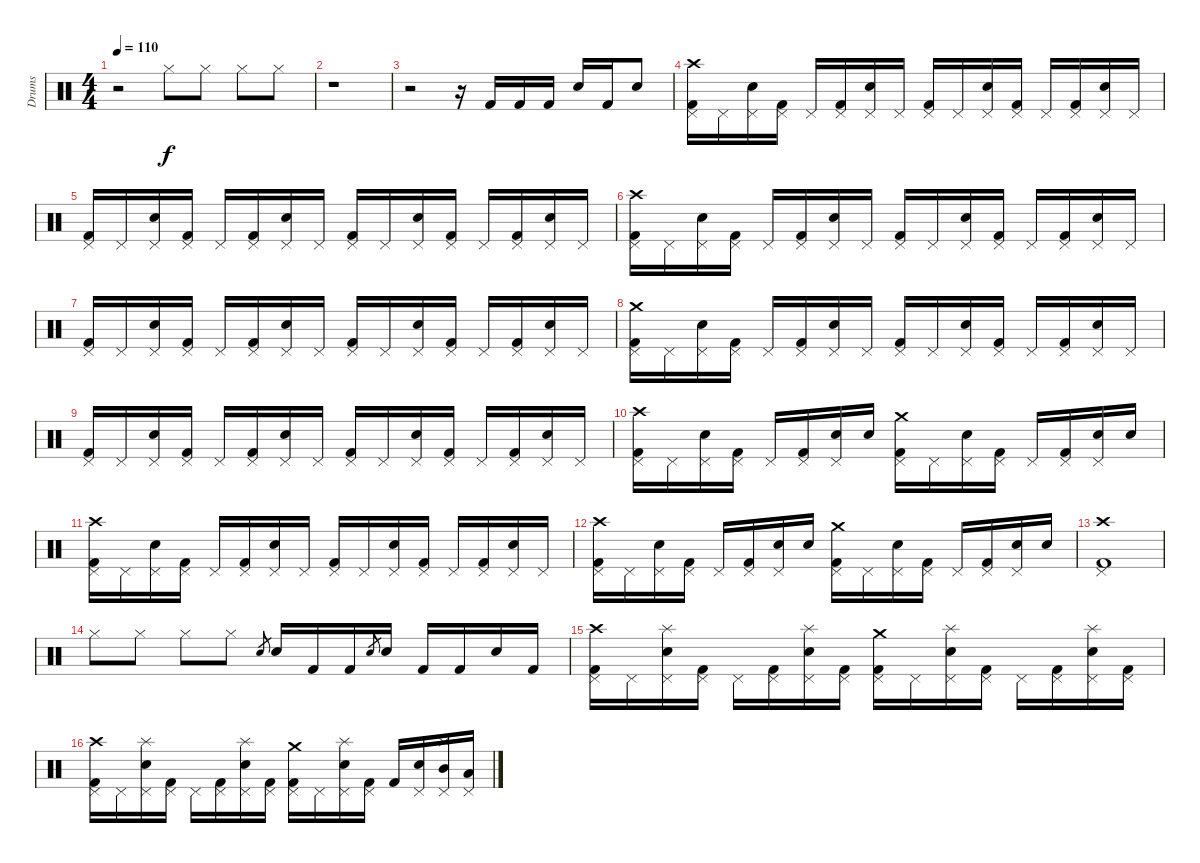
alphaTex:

\track ("Drums" "Drums") {instrument percussion}
\staff {score}
\articulation defaults
\ts (4 4)
\tempo 110
\clef neutral
\ks c
r.2{dy f} "Hi-Hat (closed)".8 "Hi-Hat (closed)".8 "Hi-Hat (closed)".8 "Hi-Hat (closed)".8 |
r.1 |
r.2 r.16 "Kick (hit) 2".16 "Kick (hit) 2".16 "Kick (hit) 2".16 "Snare (hit) 2".16 "Kick (hit) 2".16 "Snare (hit) 2".8 |
("Kick (hit) 2" "Pedal Hi-Hat (hit)" "Crash high (hit)").16 "Pedal Hi-Hat (hit)".16 ("Snare (hit) 2" "Pedal Hi-Hat (hit)").16 ("Kick (hit) 2" "Pedal Hi-Hat (hit)").16 "Pedal Hi-Hat (hit)".16 ("Kick (hit) 2" "Pedal Hi-Hat (hit)").16 ("Snare (hit) 2" "Pedal Hi-Hat (hit)").16 "Pedal Hi-Hat (hit)".16 ("Kick (hit) 2" "Pedal Hi-Hat (hit)").16 "Pedal Hi-Hat (hit)".16 ("Snare (hit) 2" "Pedal Hi-Hat (hit)").16 ("Kick (hit) 2" "Pedal Hi-Hat (hit)").16 "Pedal Hi-Hat (hit)".16 ("Kick (hit) 2" "Pedal Hi-Hat (hit)").16 ("Snare (hit) 2" "Pedal Hi-Hat (hit)").16 "Pedal Hi-Hat (hit)".16 |
("Kick (hit) 2" "Pedal Hi-Hat (hit)").16 "Pedal Hi-Hat (hit)".16 ("Snare (hit) 2" "Pedal Hi-Hat (hit)").16 ("Kick (hit) 2" "Pedal Hi-Hat (hit)").16 "Pedal Hi-Hat (hit)".16 ("Kick (hit) 2" "Pedal Hi-Hat (hit)").16 ("Snare (hit) 2" "Pedal Hi-Hat (hit)").16 "Pedal Hi-Hat (hit)".16 ("Kick (hit) 2" "Pedal Hi-Hat (hit)").16 "Pedal Hi-Hat (hit)".16 ("Snare (hit) 2" "Pedal Hi-Hat (hit)").16 ("Kick (hit) 2" "Pedal Hi-Hat (hit)").16 "Pedal Hi-Hat (hit)".16 ("Kick (hit) 2" "Pedal Hi-Hat (hit)").16 ("Snare (hit) 2" "Pedal Hi-Hat (hit)").16 "Pedal Hi-Hat (hit)".16 |
("Kick (hit) 2" "Pedal Hi-Hat (hit)" "Crash high (hit)").16 "Pedal Hi-Hat (hit)".16 ("Snare (hit) 2" "Pedal Hi-Hat (hit)").16 ("Kick (hit) 2" "Pedal Hi-Hat (hit)").16 "Pedal Hi-Hat (hit)".16 ("Kick (hit) 2" "Pedal Hi-Hat (hit)").16 ("Snare (hit) 2" "Pedal Hi-Hat (hit)").16 "Pedal Hi-Hat (hit)".16 ("Kick (hit) 2" "Pedal Hi-Hat (hit)").16 "Pedal Hi-Hat (hit)".16 ("Snare (hit) 2" "Pedal Hi-Hat (hit)").16 ("Kick (hit) 2" "Pedal Hi-Hat (hit)").16 "Pedal Hi-Hat (hit)".16 ("Kick (hit) 2" "Pedal Hi-Hat (hit)").16 ("Snare (hit) 2" "Pedal Hi-Hat (hit)").16 "Pedal Hi-Hat (hit)".16 |
("Kick (hit) 2" "Pedal Hi-Hat (hit)").16 "Pedal Hi-Hat (hit)".16 ("Snare (hit) 2" "Pedal Hi-Hat (hit)").16 ("Kick (hit) 2" "Pedal Hi-Hat (hit)").16 "Pedal Hi-Hat (hit)".16 ("Kick (hit) 2" "Pedal Hi-Hat (hit)").16 ("Snare (hit) 2" "Pedal Hi-Hat (hit)").16 "Pedal Hi-Hat (hit)".16 ("Kick (hit) 2" "Pedal Hi-Hat (hit)").16 "Pedal Hi-Hat (hit)".16 ("Snare (hit) 2" "Pedal Hi-Hat (hit)").16 ("Kick (hit) 2" "Pedal Hi-Hat (hit)").16 "Pedal Hi-Hat (hit)".16 ("Kick (hit) 2" "Pedal Hi-Hat (hit)").16 ("Snare (hit) 2" "Pedal Hi-Hat (hit)").16 "Pedal Hi-Hat (hit)".16 |
("Kick (hit) 2" "Pedal Hi-Hat (hit)" "Crash medium (hit)").16 "Pedal Hi-Hat (hit)".16 ("Snare (hit) 2" "Pedal Hi-Hat (hit)").16 ("Kick (hit) 2" "Pedal Hi-Hat (hit)").16 "Pedal Hi-Hat (hit)".16 ("Kick (hit) 2" "Pedal Hi-Hat (hit)").16 ("Snare (hit) 2" "Pedal Hi-Hat (hit)").16 "Pedal Hi-Hat (hit)".16 ("Kick (hit) 2" "Pedal Hi-Hat (hit)").16 "Pedal Hi-Hat (hit)".16 ("Snare (hit) 2" "Pedal Hi-Hat (hit)").16 ("Kick (hit) 2" "Pedal Hi-Hat (hit)").16 "Pedal Hi-Hat (hit)".16 ("Kick (hit) 2" "Pedal Hi-Hat (hit)").16 ("Snare (hit) 2" "Pedal Hi-Hat (hit)").16 "Pedal Hi-Hat (hit)".16 |
("Kick (hit) 2" "Pedal Hi-Hat (hit)").16 "Pedal Hi-Hat (hit)".16 ("Snare (hit) 2" "Pedal Hi-Hat (hit)").16 ("Kick (hit) 2" "Pedal Hi-Hat (hit)").16 "Pedal Hi-Hat (hit)".16 ("Kick (hit) 2" "Pedal Hi-Hat (hit)").16 ("Snare (hit) 2" "Pedal Hi-Hat (hit)").16 "Pedal Hi-Hat (hit)".16 ("Kick (hit) 2" "Pedal Hi-Hat (hit)").16 "Pedal Hi-Hat (hit)".16 ("Snare (hit) 2" "Pedal Hi-Hat (hit)").16 ("Kick (hit) 2" "Pedal Hi-Hat (hit)").16 "Pedal Hi-Hat (hit)".16 ("Kick (hit) 2" "Pedal Hi-Hat (hit)").16 ("Snare (hit) 2" "Pedal Hi-Hat (hit)").16 "Pedal Hi-Hat (hit)".16 |
("Kick (hit) 2" "Pedal Hi-Hat (hit)" "Crash high (hit)").16 "Pedal Hi-Hat (hit)".16 ("Snare (hit) 2" "Pedal Hi-Hat (hit)").16 ("Kick (hit) 2" "Pedal Hi-Hat (hit)").16 "Pedal Hi-Hat (hit)".16 ("Kick (hit) 2" "Pedal Hi-Hat (hit)").16 ("Snare (hit) 2" "Pedal Hi-Hat (hit)").16 "Snare (hit) 2".16 ("Kick (hit) 2" "Pedal Hi-Hat (hit)" "Crash medium (hit)").16 "Pedal Hi-Hat (hit)".16 ("Snare (hit) 2" "Pedal Hi-Hat (hit)").16 ("Kick (hit) 2" "Pedal Hi-Hat (hit)").16 "Pedal Hi-Hat (hit)".16 ("Kick (hit) 2" "Pedal Hi-Hat (hit)").16 ("Snare (hit) 2" "Pedal Hi-Hat (hit)").16 "Snare (hit) 2".16 |
("Kick (hit) 2" "Pedal Hi-Hat (hit)" "Crash high (hit)").16 "Pedal Hi-Hat (hit)".16 ("Snare (hit) 2" "Pedal Hi-Hat (hit)").16 ("Kick (hit) 2" "Pedal Hi-Hat (hit)").16 "Pedal Hi-Hat (hit)".16 ("Kick (hit) 2" "Pedal Hi-Hat (hit)").16 ("Snare (hit) 2" "Pedal Hi-Hat (hit)").16 "Pedal Hi-Hat (hit)".16 ("Kick (hit) 2" "Pedal Hi-Hat (hit)").16 "Pedal Hi-Hat (hit)".16 ("Snare (hit) 2" "Pedal Hi-Hat (hit)").16 ("Kick (hit) 2" "Pedal Hi-Hat (hit)").16 "Pedal Hi-Hat (hit)".16 ("Kick (hit) 2" "Pedal Hi-Hat (hit)").16 ("Snare (hit) 2" "Pedal Hi-Hat (hit)").16 "Pedal Hi-Hat (hit)".16 |
("Kick (hit) 2" "Pedal Hi-Hat (hit)" "Crash high (hit)").16 "Pedal Hi-Hat (hit)".16 ("Snare (hit) 2" "Pedal Hi-Hat (hit)").16 ("Kick (hit) 2" "Pedal Hi-Hat (hit)").16 "Pedal Hi-Hat (hit)".16 ("Kick (hit) 2" "Pedal Hi-Hat (hit)").16 ("Snare (hit) 2" "Pedal Hi-Hat (hit)").16 "Snare (hit) 2".16 ("Kick (hit) 2" "Pedal Hi-Hat (hit)" "Crash medium (hit)").16 "Pedal Hi-Hat (hit)".16 ("Snare (hit) 2" "Pedal Hi-Hat (hit)").16 ("Kick (hit) 2" "Pedal Hi-Hat (hit)").16 "Pedal Hi-Hat (hit)".16 ("Kick (hit) 2" "Pedal Hi-Hat (hit)").16 ("Snare (hit) 2" "Pedal Hi-Hat (hit)").16 "Snare (hit) 2".16 |
("Kick (hit) 2" "Pedal Hi-Hat (hit)" "Crash high (hit)").1 |
"Hi-Hat (closed)".8 "Hi-Hat (closed)".8 "Hi-Hat (closed)".8 "Hi-Hat (closed)".8 "Snare (hit) 2".8{gr} "Snare (hit) 2".16 "Kick (hit) 2".16 "Kick (hit) 2".16 "Snare (hit) 2".8{gr} "Snare (hit) 2".16 "Kick (hit) 2".16 "Kick (hit) 2".16 "Snare (hit) 2".16 "Kick (hit) 2".16 |
("Kick (hit) 2" "Pedal Hi-Hat (hit)" "Crash high (hit)").16 "Pedal Hi-Hat (hit)".16 ("Snare (hit) 2" "Pedal Hi-Hat (hit)" "Splash (hit)").16 ("Kick (hit) 2" "Pedal Hi-Hat (hit)").16 "Pedal Hi-Hat (hit)".16 ("Kick (hit) 2" "Pedal Hi-Hat (hit)").16 ("Snare (hit) 2" "Pedal Hi-Hat (hit)" "Splash (hit)").16 ("Kick (hit) 2" "Pedal Hi-Hat (hit)").16 ("Kick (hit) 2" "Pedal Hi-Hat (hit)" "Crash medium (hit)").16 "Pedal Hi-Hat (hit)".16 ("Snare (hit) 2" "Pedal Hi-Hat (hit)" "Splash (hit)").16 ("Kick (hit) 2" "Pedal Hi-Hat (hit)").16 "Pedal Hi-Hat (hit)".16 ("Kick (hit) 2" "Pedal Hi-Hat (hit)").16 ("Snare (hit) 2" "Pedal Hi-Hat (hit)" "Splash (hit)").16 ("Kick (hit) 2" "Pedal Hi-Hat (hit)").16 |
("Kick (hit) 2" "Pedal Hi-Hat (hit)" "Crash high (hit)").16 "Pedal Hi-Hat (hit)".16 ("Snare (hit) 2" "Pedal Hi-Hat (hit)" "Splash (hit)").16 ("Kick (hit) 2" "Pedal Hi-Hat (hit)").16 "Pedal Hi-Hat (hit)".16 ("Kick (hit) 2" "Pedal Hi-Hat (hit)").16 ("Snare (hit) 2" "Pedal Hi-Hat (hit)" "Splash (hit)").16 ("Kick (hit) 2" "Pedal Hi-Hat (hit)").16 ("Kick (hit) 2" "Pedal Hi-Hat (hit)" "Crash medium (hit)").16 "Pedal Hi-Hat (hit)".16 ("Snare (hit) 2" "Pedal Hi-Hat (hit)" "Splash (hit)").16 ("Kick (hit) 2" "Pedal Hi-Hat (hit)").16 "Kick (hit) 2".16 ("Snare (hit) 2" "Pedal Hi-Hat (hit)").16 ("Mid Tom (hit)" "Pedal Hi-Hat (hit)" "Splash (hit)").16 ("Low Tom (hit)" "Pedal Hi-Hat (hit)").16
